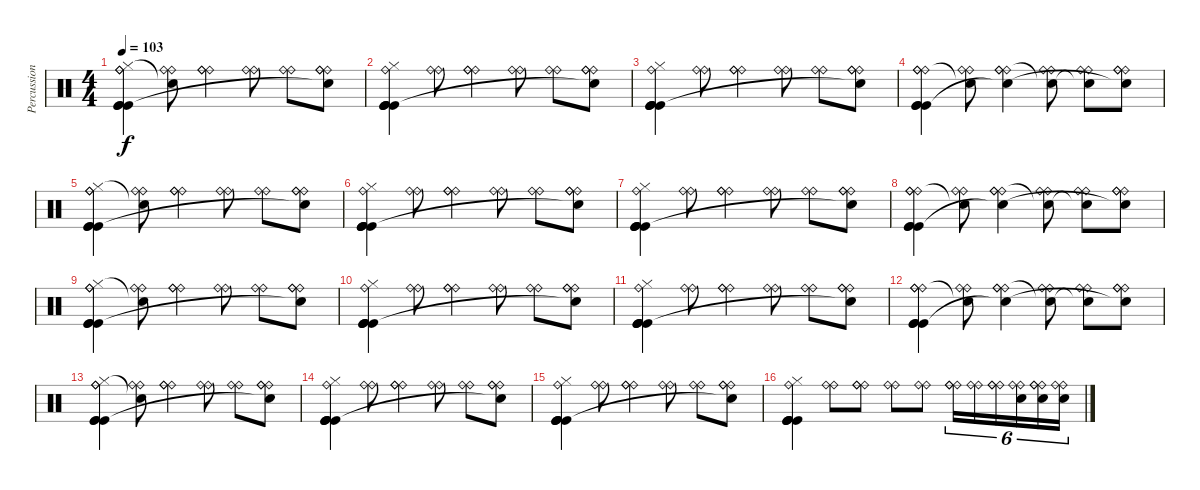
\track ("Percussion" "Percussion") {instrument percussion}
\staff {score}
\articulation defaults
\ts (4 4)
\tempo 103
\clef neutral
\ks c
("Kick (hit)" "Ride (bell)" "Hi-Hat (closed)" "Kick (hit)" "Ride (bell)" "Kick (hit)").4{dy f} ("Ride (bell)" "Ride (bell)" "Snare (hit)"{t}).8 ("Ride (bell)" "Ride (bell)" "Ride (bell)").4 ("Ride (bell)" "Ride (bell)").8 ("Ride (bell)" "Ride (bell)").8 ("Ride (bell)" "Ride (bell)" "Ride (bell)" "Snare (hit)"{t}).8 |
("Kick (hit)" "Ride (bell)" "Hi-Hat (closed)" "Kick (hit)" "Kick (hit)" "Kick (hit)").4 ("Ride (bell)" "Ride (bell)").8 ("Ride (bell)" "Ride (bell)" "Ride (bell)").4 ("Ride (bell)" "Ride (bell)").8 ("Ride (bell)" "Ride (bell)").8 ("Ride (bell)" "Ride (bell)" "Ride (bell)" "Snare (hit)"{t}).8 |
("Kick (hit)" "Ride (bell)" "Hi-Hat (closed)" "Kick (hit)" "Kick (hit)" "Kick (hit)").4 ("Ride (bell)" "Ride (bell)").8 ("Ride (bell)" "Ride (bell)" "Ride (bell)").4 ("Ride (bell)" "Ride (bell)").8 ("Ride (bell)" "Ride (bell)").8 ("Ride (bell)" "Ride (bell)" "Ride (bell)" "Snare (hit)"{t}).8 |
("Kick (hit)" "Ride (bell)" "Ride (bell)" "Kick (hit)" "Ride (bell)" "Kick (hit)").4 ("Ride (bell)" "Ride (bell)" "Snare (hit)"{t}).8 ("Ride (bell)" "Ride (bell)" "Ride (bell)" "Snare (hit)"{t}).4 ("Ride (bell)" "Ride (bell)" "Snare (hit)"{t}).8 ("Ride (bell)" "Ride (bell)" "Snare (hit)"{t}).8 ("Ride (bell)" "Ride (bell)" "Ride (bell)" "Snare (hit)"{t}).8 |
("Kick (hit)" "Ride (bell)" "Hi-Hat (closed)" "Kick (hit)" "Ride (bell)" "Kick (hit)").4 ("Ride (bell)" "Ride (bell)" "Snare (hit)"{t}).8 ("Ride (bell)" "Ride (bell)" "Ride (bell)").4 ("Ride (bell)" "Ride (bell)").8 ("Ride (bell)" "Ride (bell)").8 ("Ride (bell)" "Ride (bell)" "Ride (bell)" "Snare (hit)"{t}).8 |
("Kick (hit)" "Ride (bell)" "Hi-Hat (closed)" "Kick (hit)" "Kick (hit)" "Kick (hit)").4 ("Ride (bell)" "Ride (bell)").8 ("Ride (bell)" "Ride (bell)" "Ride (bell)").4 ("Ride (bell)" "Ride (bell)").8 ("Ride (bell)" "Ride (bell)").8 ("Ride (bell)" "Ride (bell)" "Ride (bell)" "Snare (hit)"{t}).8 |
("Kick (hit)" "Ride (bell)" "Hi-Hat (closed)" "Kick (hit)" "Kick (hit)" "Kick (hit)").4 ("Ride (bell)" "Ride (bell)").8 ("Ride (bell)" "Ride (bell)" "Ride (bell)").4 ("Ride (bell)" "Ride (bell)").8 ("Ride (bell)" "Ride (bell)").8 ("Ride (bell)" "Ride (bell)" "Ride (bell)" "Snare (hit)"{t}).8 |
("Kick (hit)" "Ride (bell)" "Ride (bell)" "Kick (hit)" "Ride (bell)" "Kick (hit)").4 ("Ride (bell)" "Ride (bell)" "Snare (hit)"{t}).8 ("Ride (bell)" "Ride (bell)" "Ride (bell)" "Snare (hit)"{t}).4 ("Ride (bell)" "Ride (bell)" "Snare (hit)"{t}).8 ("Ride (bell)" "Ride (bell)" "Snare (hit)"{t}).8 ("Ride (bell)" "Ride (bell)" "Ride (bell)" "Snare (hit)"{t}).8 |
("Kick (hit)" "Ride (bell)" "Hi-Hat (closed)" "Kick (hit)" "Ride (bell)" "Kick (hit)").4 ("Ride (bell)" "Ride (bell)" "Snare (hit)"{t}).8 ("Ride (bell)" "Ride (bell)" "Ride (bell)").4 ("Ride (bell)" "Ride (bell)").8 ("Ride (bell)" "Ride (bell)").8 ("Ride (bell)" "Ride (bell)" "Ride (bell)" "Snare (hit)"{t}).8 |
("Kick (hit)" "Ride (bell)" "Hi-Hat (closed)" "Kick (hit)" "Kick (hit)" "Kick (hit)").4 ("Ride (bell)" "Ride (bell)").8 ("Ride (bell)" "Ride (bell)" "Ride (bell)").4 ("Ride (bell)" "Ride (bell)").8 ("Ride (bell)" "Ride (bell)").8 ("Ride (bell)" "Ride (bell)" "Ride (bell)" "Snare (hit)"{t}).8 |
("Kick (hit)" "Ride (bell)" "Hi-Hat (closed)" "Kick (hit)" "Kick (hit)" "Kick (hit)").4 ("Ride (bell)" "Ride (bell)").8 ("Ride (bell)" "Ride (bell)" "Ride (bell)").4 ("Ride (bell)" "Ride (bell)").8 ("Ride (bell)" "Ride (bell)").8 ("Ride (bell)" "Ride (bell)" "Ride (bell)" "Snare (hit)"{t}).8 |
("Kick (hit)" "Ride (bell)" "Ride (bell)" "Kick (hit)" "Ride (bell)" "Kick (hit)").4 ("Ride (bell)" "Ride (bell)" "Snare (hit)"{t}).8 ("Ride (bell)" "Ride (bell)" "Ride (bell)" "Snare (hit)"{t}).4 ("Ride (bell)" "Ride (bell)" "Snare (hit)"{t}).8 ("Ride (bell)" "Ride (bell)" "Snare (hit)"{t}).8 ("Ride (bell)" "Ride (bell)" "Ride (bell)" "Snare (hit)"{t}).8 |
("Kick (hit)" "Ride (bell)" "Hi-Hat (closed)" "Kick (hit)" "Ride (bell)" "Kick (hit)").4 ("Ride (bell)" "Ride (bell)" "Snare (hit)"{t}).8 ("Ride (bell)" "Ride (bell)" "Ride (bell)").4 ("Ride (bell)" "Ride (bell)").8 ("Ride (bell)" "Ride (bell)").8 ("Ride (bell)" "Ride (bell)" "Ride (bell)" "Snare (hit)"{t}).8 |
("Kick (hit)" "Ride (bell)" "Hi-Hat (closed)" "Kick (hit)" "Kick (hit)" "Kick (hit)").4 ("Ride (bell)" "Ride (bell)").8 ("Ride (bell)" "Ride (bell)" "Ride (bell)").4 ("Ride (bell)" "Ride (bell)").8 ("Ride (bell)" "Ride (bell)").8 ("Ride (bell)" "Ride (bell)" "Ride (bell)" "Snare (hit)"{t}).8 |
("Kick (hit)" "Ride (bell)" "Hi-Hat (closed)" "Kick (hit)" "Kick (hit)" "Kick (hit)").4 ("Ride (bell)" "Ride (bell)").8 ("Ride (bell)" "Ride (bell)" "Ride (bell)").4 ("Ride (bell)" "Ride (bell)").8 ("Ride (bell)" "Ride (bell)").8 ("Ride (bell)" "Ride (bell)" "Ride (bell)" "Snare (hit)"{t}).8 |
("Kick (hit)" "Ride (bell)" "Hi-Hat (closed)" "Kick (hit)" "Kick (hit)" "Kick (hit)").4 ("Ride (bell)" "Ride (bell)").8 ("Ride (bell)" "Ride (bell)" "Ride (bell)").8 ("Ride (bell)" "Ride (bell)").8 ("Ride (bell)" "Ride (bell)").8 ("Ride (bell)" "Ride (bell)" "Ride (bell)").16{tu (6 4)} ("Ride (bell)" "Ride (bell)").16{tu (6 4)} ("Ride (bell)" "Ride (bell)" "Ride (bell)").16{tu (6 4)} ("Ride (bell)" "Ride (bell)" "Snare (hit) 2").16{tu (6 4)} ("Ride (bell)" "Ride (bell)" "Ride (bell)" "Snare (hit) 2").16{tu (6 4)} ("Ride (bell)" "Ride (bell)" "Snare (hit) 2").16{tu (6 4)}
